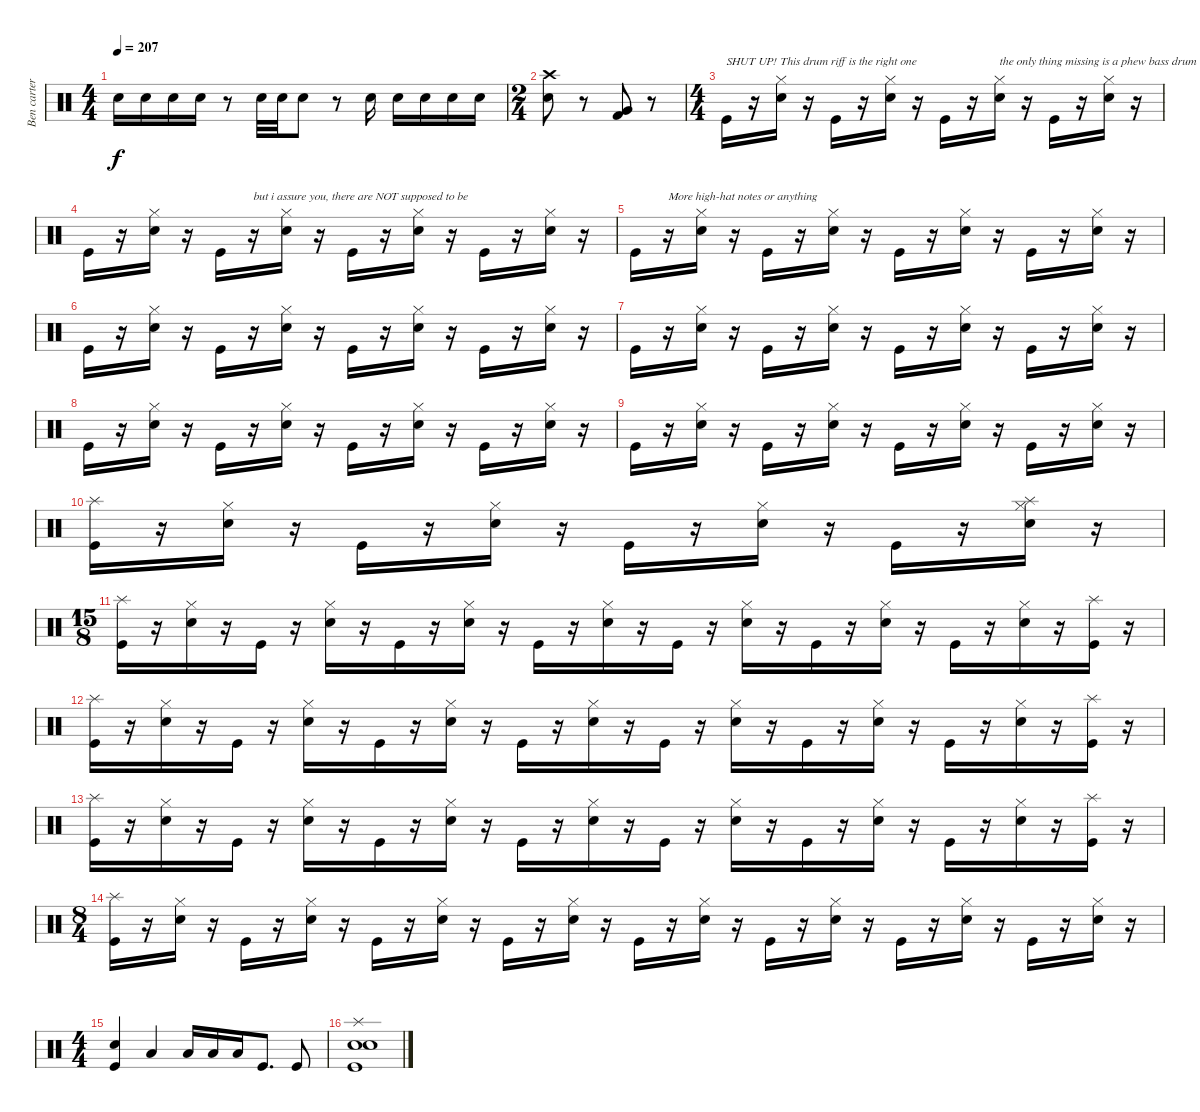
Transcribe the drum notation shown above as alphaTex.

\track ("Ben carter" "Ben carter") {instrument percussion}
\staff {score}
\articulation defaults
\ts (4 4)
\tempo 207
\clef neutral
\ks c "Electric Snare (hit)".16{dy f} "Electric Snare (hit)".16 "Electric Snare (hit)".16 "Electric Snare (hit)".16
r.8 "Electric Snare (hit)".32 "Electric Snare (hit)".32 "Electric Snare (hit)".8 r.8 "Electric Snare (hit)".16 "Electric Snare (hit)".16 "Electric Snare (hit)".16 "Electric Snare (hit)".16 "Electric Snare (hit)".16 |
\ts (2 4)
("Crash high (hit)" "Electric Snare (hit)").8 r.8 ("Very Low Tom (hit)" "Kick (hit) 2").8 r.8 |
\ts (4 4)
"Kick (hit)".16{txt "SHUT UP! This drum riff is the right one"} r.16 ("Hi-Hat (closed)" "Electric Snare (hit)").16 r.16 "Kick (hit)".16 r.16 ("Hi-Hat (closed)" "Electric Snare (hit)").16 r.16 "Kick (hit)".16 r.16 ("Hi-Hat (closed)" "Electric Snare (hit)").16{txt "the only thing missing is a phew bass drum hits"} r.16 "Kick (hit)".16 r.16 ("Hi-Hat (closed)" "Electric Snare (hit)").16 r.16 |
"Kick (hit)".16 r.16 ("Hi-Hat (closed)" "Electric Snare (hit)").16 r.16 "Kick (hit)".16 r.16{txt "but i assure you, there are NOT supposed to be"} ("Hi-Hat (closed)" "Electric Snare (hit)").16 r.16 "Kick (hit)".16 r.16 ("Hi-Hat (closed)" "Electric Snare (hit)").16 r.16 "Kick (hit)".16 r.16 ("Hi-Hat (closed)" "Electric Snare (hit)").16 r.16 |
"Kick (hit)".16 r.16{txt "More high-hat notes or anything"} ("Hi-Hat (closed)" "Electric Snare (hit)").16 r.16 "Kick (hit)".16 r.16 ("Hi-Hat (closed)" "Electric Snare (hit)").16 r.16 "Kick (hit)".16 r.16 ("Hi-Hat (closed)" "Electric Snare (hit)").16 r.16 "Kick (hit)".16 r.16 ("Hi-Hat (closed)" "Electric Snare (hit)").16 r.16 |
"Kick (hit)".16 r.16 ("Hi-Hat (closed)" "Electric Snare (hit)").16 r.16 "Kick (hit)".16 r.16 ("Hi-Hat (closed)" "Electric Snare (hit)").16 r.16 "Kick (hit)".16 r.16 ("Hi-Hat (closed)" "Electric Snare (hit)").16 r.16 "Kick (hit)".16 r.16 ("Hi-Hat (closed)" "Electric Snare (hit)").16 r.16 |
"Kick (hit)".16 r.16 ("Hi-Hat (closed)" "Electric Snare (hit)").16 r.16 "Kick (hit)".16 r.16 ("Hi-Hat (closed)" "Electric Snare (hit)").16 r.16 "Kick (hit)".16 r.16 ("Hi-Hat (closed)" "Electric Snare (hit)").16 r.16 "Kick (hit)".16 r.16 ("Hi-Hat (closed)" "Electric Snare (hit)").16 r.16 |
"Kick (hit)".16 r.16 ("Hi-Hat (closed)" "Electric Snare (hit)").16 r.16 "Kick (hit)".16 r.16 ("Hi-Hat (closed)" "Electric Snare (hit)").16 r.16 "Kick (hit)".16 r.16 ("Hi-Hat (closed)" "Electric Snare (hit)").16 r.16 "Kick (hit)".16 r.16 ("Hi-Hat (closed)" "Electric Snare (hit)").16 r.16 |
"Kick (hit)".16 r.16 ("Hi-Hat (closed)" "Electric Snare (hit)").16 r.16 "Kick (hit)".16 r.16 ("Hi-Hat (closed)" "Electric Snare (hit)").16 r.16 "Kick (hit)".16 r.16 ("Hi-Hat (closed)" "Electric Snare (hit)").16 r.16 "Kick (hit)".16 r.16 ("Hi-Hat (closed)" "Electric Snare (hit)").16 r.16 |
("Splash (hit)" "Kick (hit)").16 r.16 ("Hi-Hat (closed)" "Electric Snare (hit)").16 r.16 "Kick (hit)".16 r.16 ("Hi-Hat (closed)" "Electric Snare (hit)").16 r.16 "Kick (hit)".16 r.16 ("Hi-Hat (closed)" "Electric Snare (hit)").16 r.16 "Kick (hit)".16 r.16 ("Hi-Hat (closed)" "Electric Snare (hit)" "Splash (hit)").16 r.16 |
\ts (15 8)
("Splash (hit)" "Kick (hit)").16 r.16 ("Hi-Hat (closed)" "Electric Snare (hit)").16 r.16 "Kick (hit)".16 r.16 ("Hi-Hat (closed)" "Electric Snare (hit)").16 r.16 "Kick (hit)".16 r.16 ("Hi-Hat (closed)" "Electric Snare (hit)").16 r.16 "Kick (hit)".16 r.16 ("Hi-Hat (closed)" "Electric Snare (hit)").16 r.16 "Kick (hit)".16 r.16 ("Hi-Hat (closed)" "Electric Snare (hit)").16 r.16 "Kick (hit)".16 r.16 ("Hi-Hat (closed)" "Electric Snare (hit)").16 r.16 "Kick (hit)".16 r.16 ("Hi-Hat (closed)" "Electric Snare (hit)").16 r.16 ("Splash (hit)" "Kick (hit)").16 r.16 |
("Splash (hit)" "Kick (hit)").16 r.16 ("Hi-Hat (closed)" "Electric Snare (hit)").16 r.16 "Kick (hit)".16 r.16 ("Hi-Hat (closed)" "Electric Snare (hit)").16 r.16 "Kick (hit)".16 r.16 ("Hi-Hat (closed)" "Electric Snare (hit)").16 r.16 "Kick (hit)".16 r.16 ("Hi-Hat (closed)" "Electric Snare (hit)").16 r.16 "Kick (hit)".16 r.16 ("Hi-Hat (closed)" "Electric Snare (hit)").16 r.16 "Kick (hit)".16 r.16 ("Hi-Hat (closed)" "Electric Snare (hit)").16 r.16 "Kick (hit)".16 r.16 ("Hi-Hat (closed)" "Electric Snare (hit)").16 r.16 ("Splash (hit)" "Kick (hit)").16 r.16 |
("Splash (hit)" "Kick (hit)").16 r.16 ("Hi-Hat (closed)" "Electric Snare (hit)").16 r.16 "Kick (hit)".16 r.16 ("Hi-Hat (closed)" "Electric Snare (hit)").16 r.16 "Kick (hit)".16 r.16 ("Hi-Hat (closed)" "Electric Snare (hit)").16 r.16 "Kick (hit)".16 r.16 ("Hi-Hat (closed)" "Electric Snare (hit)").16 r.16 "Kick (hit)".16 r.16 ("Hi-Hat (closed)" "Electric Snare (hit)").16 r.16 "Kick (hit)".16 r.16 ("Hi-Hat (closed)" "Electric Snare (hit)").16 r.16 "Kick (hit)".16 r.16 ("Hi-Hat (closed)" "Electric Snare (hit)").16 r.16 ("Splash (hit)" "Kick (hit)").16 r.16 |
\ts (8 4)
("Splash (hit)" "Kick (hit)").16 r.16 ("Hi-Hat (closed)" "Electric Snare (hit)").16 r.16 "Kick (hit)".16 r.16 ("Hi-Hat (closed)" "Electric Snare (hit)").16 r.16 "Kick (hit)".16 r.16 ("Hi-Hat (closed)" "Electric Snare (hit)").16 r.16 "Kick (hit)".16 r.16 ("Hi-Hat (closed)" "Electric Snare (hit)").16 r.16 "Kick (hit)".16 r.16 ("Hi-Hat (closed)" "Electric Snare (hit)").16 r.16 "Kick (hit)".16 r.16 ("Hi-Hat (closed)" "Electric Snare (hit)").16 r.16 "Kick (hit)".16 r.16 ("Hi-Hat (closed)" "Electric Snare (hit)").16 r.16 "Kick (hit)".16 r.16 ("Hi-Hat (closed)" "Electric Snare (hit)").16 r.16 |
\ts (4 4)
("Electric Snare (hit)" "Kick (hit)").4 "Low Floor Tom (hit)".4 "Low Floor Tom (hit)".16 "Low Floor Tom (hit)".16 "Low Floor Tom (hit)".16 "Kick (hit)".8{d} "Kick (hit)".8 |
("Kick (hit)" "Snare (hit) 2" "Snare (hit) 2" "Splash (hit)").1
